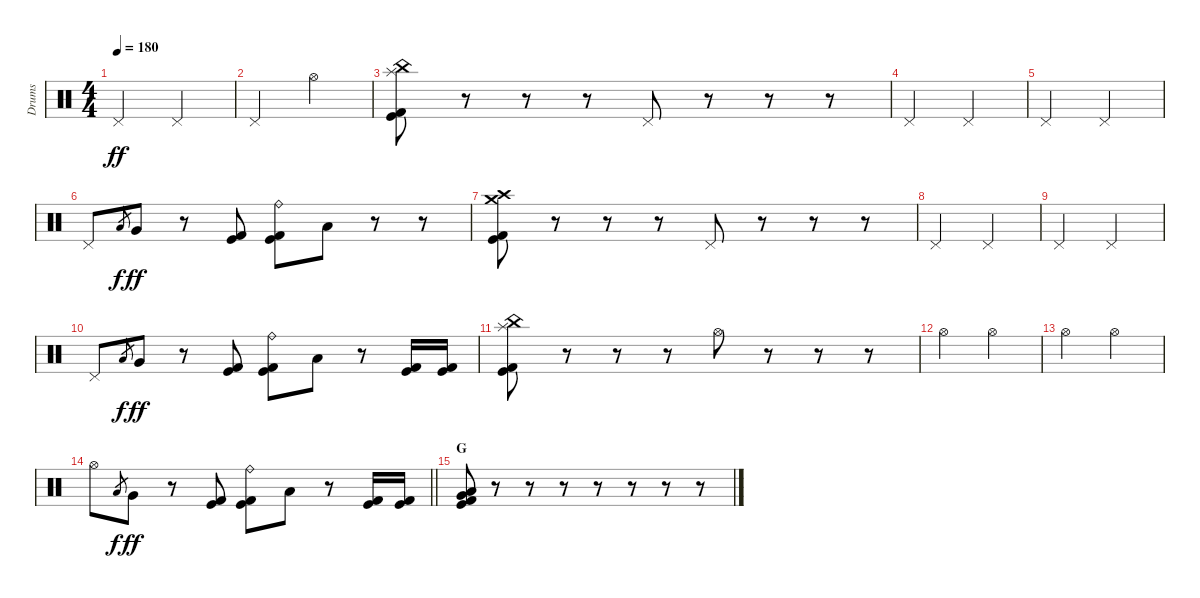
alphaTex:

\track ("Drums" "Drums") {instrument percussion}
\staff {score}
\articulation defaults
\ts (4 4)
\tempo 180
\clef neutral
\ks c "Pedal Hi-Hat (hit)".2{dy ff} "Pedal Hi-Hat (hit)".2
|
"Pedal Hi-Hat (hit)".2 "Hi-Hat (open)".2 |
("China (hit)" "Splash (hit)" "Kick (hit)" "Kick (hit) 2").8 r.8 r.8 r.8 "Pedal Hi-Hat (hit)".8 r.8 r.8 r.8 |
"Pedal Hi-Hat (hit)".2 "Pedal Hi-Hat (hit)".2 |
"Pedal Hi-Hat (hit)".2 "Pedal Hi-Hat (hit)".2 |
"Pedal Hi-Hat (hit)".8 "Low Tom (hit)".8{gr dy f} "Very Low Tom (hit)".8{dy ff} r.8 ("Kick (hit)" "Kick (hit) 2").8 ("Ride (bell)" "Kick (hit)" "Kick (hit) 2").8 "Low Floor Tom (hit)".8 r.8 r.8 |
("Crash medium (hit)" "Crash high (hit)" "Kick (hit)" "Kick (hit) 2").8 r.8 r.8 r.8 "Pedal Hi-Hat (hit)".8 r.8 r.8 r.8 |
"Pedal Hi-Hat (hit)".2 "Pedal Hi-Hat (hit)".2 |
"Pedal Hi-Hat (hit)".2 "Pedal Hi-Hat (hit)".2 |
"Pedal Hi-Hat (hit)".8 "Low Tom (hit)".8{gr dy f} "Very Low Tom (hit)".8{dy ff} r.8 ("Kick (hit)" "Kick (hit) 2").8 ("Ride (bell)" "Kick (hit)" "Kick (hit) 2").8 "Low Floor Tom (hit)".8 r.8 ("Kick (hit)" "Kick (hit) 2").16 ("Kick (hit)" "Kick (hit) 2").16 |
("Splash (hit)" "China (hit)" "Kick (hit)" "Kick (hit) 2").8 r.8 r.8 r.8 "Hi-Hat (open)".8 r.8 r.8 r.8 |
"Hi-Hat (open)".2 "Hi-Hat (open)".2 |
"Hi-Hat (open)".2 "Hi-Hat (open)".2 |
\barLineRight lightlight "Hi-Hat (open)".8 "Low Tom (hit)".8{gr dy f} "Very Low Tom (hit)".8{dy ff}
r.8 ("Kick (hit)" "Kick (hit) 2").8 ("Ride (bell)" "Kick (hit)" "Kick (hit) 2").8 "Low Floor Tom (hit)".8 r.8 ("Kick (hit)" "Kick (hit) 2").16 ("Kick (hit)" "Kick (hit) 2").16 |
\section ("" "G")
("Low Floor Tom (hit)" "Very Low Tom (hit)" "Kick (hit)" "Kick (hit) 2").8 r.8 r.8 r.8 r.8 r.8 r.8 r.8
